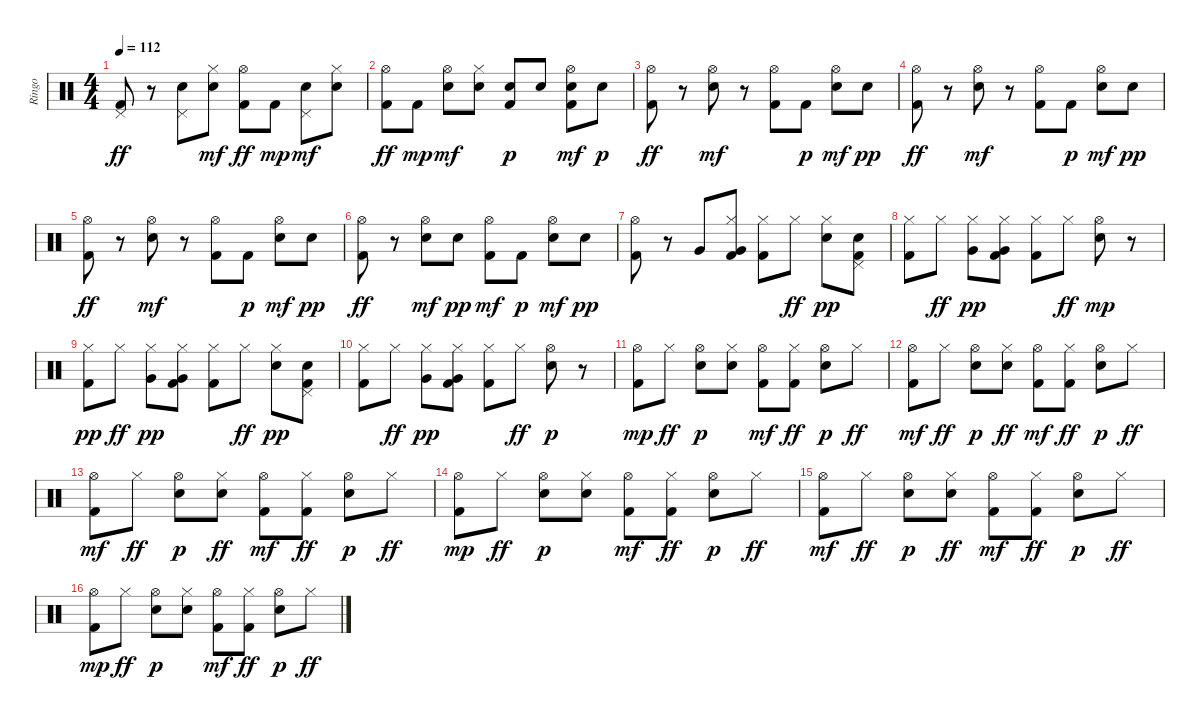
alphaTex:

\track ("Ringo" "Ringo") {instrument percussion}
\staff {score}
\articulation defaults
\ts (4 4)
\tempo 112
\clef neutral
\ks c
("Kick (hit) 2" "Pedal Hi-Hat (hit)").8{dy ff} r.8 ("Snare (hit) 2" "Pedal Hi-Hat (hit)").8 ("Snare (hit) 2" "Hi-Hat (closed)").8{dy mf} ("Kick (hit) 2" "Hi-Hat (open)").8{dy ff} "Kick (hit) 2".8{dy mp} ("Snare (hit) 2" "Pedal Hi-Hat (hit)").8{dy mf} ("Snare (hit) 2" "Hi-Hat (closed)").8 |
("Kick (hit) 2" "Hi-Hat (open)").8{dy ff} "Kick (hit) 2".8{dy mp} ("Snare (hit) 2" "Hi-Hat (open)").8{dy mf} ("Snare (hit) 2" "Hi-Hat (closed)").8 ("Kick (hit) 2" "Snare (hit) 2").8{dy p} "Snare (hit) 2".8 ("Kick (hit) 2" "Snare (hit) 2" "Hi-Hat (open)").8{dy mf} "Snare (hit) 2".8{dy p} |
("Kick (hit) 2" "Hi-Hat (open)").8{dy ff} r.8 ("Snare (hit) 2" "Hi-Hat (open)").8{dy mf} r.8 ("Kick (hit) 2" "Hi-Hat (open)").8 "Kick (hit) 2".8{dy p} ("Snare (hit) 2" "Hi-Hat (open)").8{dy mf} "Snare (hit) 2".8{dy pp} |
("Kick (hit) 2" "Hi-Hat (open)").8{dy ff} r.8 ("Snare (hit) 2" "Hi-Hat (open)").8{dy mf} r.8 ("Kick (hit) 2" "Hi-Hat (open)").8 "Kick (hit) 2".8{dy p} ("Snare (hit) 2" "Hi-Hat (open)").8{dy mf} "Snare (hit) 2".8{dy pp} |
("Kick (hit) 2" "Hi-Hat (open)").8{dy ff} r.8 ("Snare (hit) 2" "Hi-Hat (open)").8{dy mf} r.8 ("Kick (hit) 2" "Hi-Hat (open)").8 "Kick (hit) 2".8{dy p} ("Snare (hit) 2" "Hi-Hat (open)").8{dy mf} "Snare (hit) 2".8{dy pp} |
("Kick (hit) 2" "Hi-Hat (open)").8{dy ff} r.8 ("Snare (hit) 2" "Hi-Hat (open)").8{dy mf} "Snare (hit) 2".8{dy pp} ("Kick (hit) 2" "Hi-Hat (open)").8{dy mf} "Kick (hit) 2".8{dy p} ("Snare (hit) 2" "Hi-Hat (open)").8{dy mf} "Snare (hit) 2".8{dy pp} |
("Hi-Hat (open)" "Kick (hit) 2").8 r.8 "Very Low Tom (hit)".8 ("Hi-Hat (closed)" "Very Low Tom (hit)" "Kick (hit) 2").8 ("Hi-Hat (closed)" "Kick (hit) 2").8 "Hi-Hat (closed)".8{dy ff} ("Hi-Hat (closed)" "Snare (hit) 2").8{dy pp} ("Pedal Hi-Hat (hit)" "Snare (hit) 2" "Kick (hit) 2").8 |
("Hi-Hat (closed)" "Kick (hit) 2").8 "Hi-Hat (closed)".8{dy ff} ("Hi-Hat (closed)" "Very Low Tom (hit)").8{dy pp} ("Hi-Hat (closed)" "Very Low Tom (hit)" "Kick (hit) 2").8 ("Hi-Hat (closed)" "Kick (hit) 2").8 "Hi-Hat (closed)".8{dy ff} ("Hi-Hat (open)" "Snare (hit) 2").8{dy mp} r.8 |
("Hi-Hat (closed)" "Kick (hit) 2").8{dy pp} "Hi-Hat (closed)".8{dy ff} ("Hi-Hat (closed)" "Very Low Tom (hit)").8{dy pp} ("Hi-Hat (closed)" "Very Low Tom (hit)" "Kick (hit) 2").8 ("Hi-Hat (closed)" "Kick (hit) 2").8 "Hi-Hat (closed)".8{dy ff} ("Hi-Hat (closed)" "Snare (hit) 2").8{dy pp} ("Pedal Hi-Hat (hit)" "Snare (hit) 2" "Kick (hit) 2").8 |
("Hi-Hat (closed)" "Kick (hit) 2").8 "Hi-Hat (closed)".8{dy ff} ("Hi-Hat (closed)" "Very Low Tom (hit)").8{dy pp} ("Hi-Hat (closed)" "Very Low Tom (hit)" "Kick (hit) 2").8 ("Hi-Hat (closed)" "Kick (hit) 2").8 "Hi-Hat (closed)".8{dy ff} ("Hi-Hat (open)" "Snare (hit) 2").8{dy p} r.8 |
("Hi-Hat (open)" "Kick (hit) 2").8{dy mp} "Hi-Hat (closed)".8{dy ff} ("Hi-Hat (open)" "Snare (hit) 2").8{dy p} ("Hi-Hat (closed)" "Snare (hit) 2").8 ("Kick (hit) 2" "Hi-Hat (open)").8{dy mf} ("Kick (hit) 2" "Hi-Hat (closed)").8{dy ff} ("Hi-Hat (open)" "Snare (hit) 2").8{dy p} "Hi-Hat (closed)".8{dy ff} |
("Kick (hit) 2" "Hi-Hat (open)").8{dy mf} "Hi-Hat (closed)".8{dy ff} ("Hi-Hat (open)" "Snare (hit) 2").8{dy p} ("Snare (hit) 2" "Hi-Hat (closed)").8{dy ff} ("Kick (hit) 2" "Hi-Hat (open)").8{dy mf} ("Kick (hit) 2" "Hi-Hat (closed)").8{dy ff} ("Hi-Hat (open)" "Snare (hit) 2").8{dy p} "Hi-Hat (closed)".8{dy ff} |
("Kick (hit) 2" "Hi-Hat (open)").8{dy mf} "Hi-Hat (closed)".8{dy ff} ("Hi-Hat (open)" "Snare (hit) 2").8{dy p} ("Snare (hit) 2" "Hi-Hat (closed)").8{dy ff} ("Kick (hit) 2" "Hi-Hat (open)").8{dy mf} ("Kick (hit) 2" "Hi-Hat (closed)").8{dy ff} ("Hi-Hat (open)" "Snare (hit) 2").8{dy p} "Hi-Hat (closed)".8{dy ff} |
("Hi-Hat (open)" "Kick (hit) 2").8{dy mp} "Hi-Hat (closed)".8{dy ff} ("Hi-Hat (open)" "Snare (hit) 2").8{dy p} ("Hi-Hat (closed)" "Snare (hit) 2").8 ("Kick (hit) 2" "Hi-Hat (open)").8{dy mf} ("Kick (hit) 2" "Hi-Hat (closed)").8{dy ff} ("Hi-Hat (open)" "Snare (hit) 2").8{dy p} "Hi-Hat (closed)".8{dy ff} |
("Kick (hit) 2" "Hi-Hat (open)").8{dy mf} "Hi-Hat (closed)".8{dy ff} ("Hi-Hat (open)" "Snare (hit) 2").8{dy p} ("Snare (hit) 2" "Hi-Hat (closed)").8{dy ff} ("Kick (hit) 2" "Hi-Hat (open)").8{dy mf} ("Kick (hit) 2" "Hi-Hat (closed)").8{dy ff} ("Hi-Hat (open)" "Snare (hit) 2").8{dy p} "Hi-Hat (closed)".8{dy ff} |
("Hi-Hat (open)" "Kick (hit) 2").8{dy mp} "Hi-Hat (closed)".8{dy ff} ("Hi-Hat (open)" "Snare (hit) 2").8{dy p} ("Hi-Hat (closed)" "Snare (hit) 2").8 ("Kick (hit) 2" "Hi-Hat (open)").8{dy mf} ("Kick (hit) 2" "Hi-Hat (closed)").8{dy ff} ("Hi-Hat (open)" "Snare (hit) 2").8{dy p} "Hi-Hat (closed)".8{dy ff}
